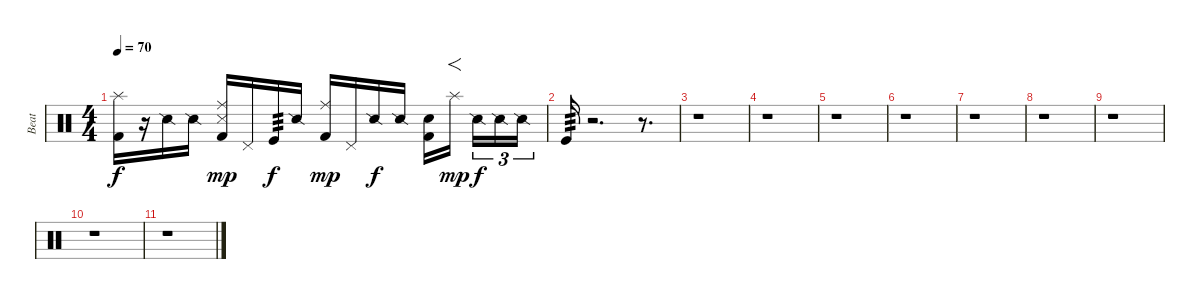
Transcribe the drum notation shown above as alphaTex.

\track ("Beat" "Beat") {instrument percussion}
\staff {score}
\articulation defaults
\ts (4 4)
\tempo 70
\clef neutral
\ks c
("Splash (hit)" "Kick (hit) 2").16{dy f} r.16 "Snare (side stick) 2".16 "Snare (side stick) 2".16 ("Metronome (hit)" "Ride (middle)" "Kick (hit) 2").16{dy mp} "Pedal Hi-Hat (hit)".16 "Kick (hit)".16{tp 3 dy f} "Snare (side stick) 2".16 ("Ride (middle)" "Kick (hit) 2").16{dy mp} "Pedal Hi-Hat (hit)".16 "Snare (side stick) 2".16{dy f} "Snare (side stick) 2".16 ("Electric Snare (hit)" "Kick (hit) 2").16 "Splash (hit)".16{f dy mp} "Snare (side stick) 2".16{tu (3 2) dy f} "Snare (side stick) 2".16{tu (3 2)} "Snare (side stick) 2".16{tu (3 2)} |
"Kick (hit)".16{tp 3} r.2{d} r.8{d} |
r.1 |
r.1 |
r.1 |
r.1 |
r.1 |
r.1 |
r.1 |
r.1 |
r.1
